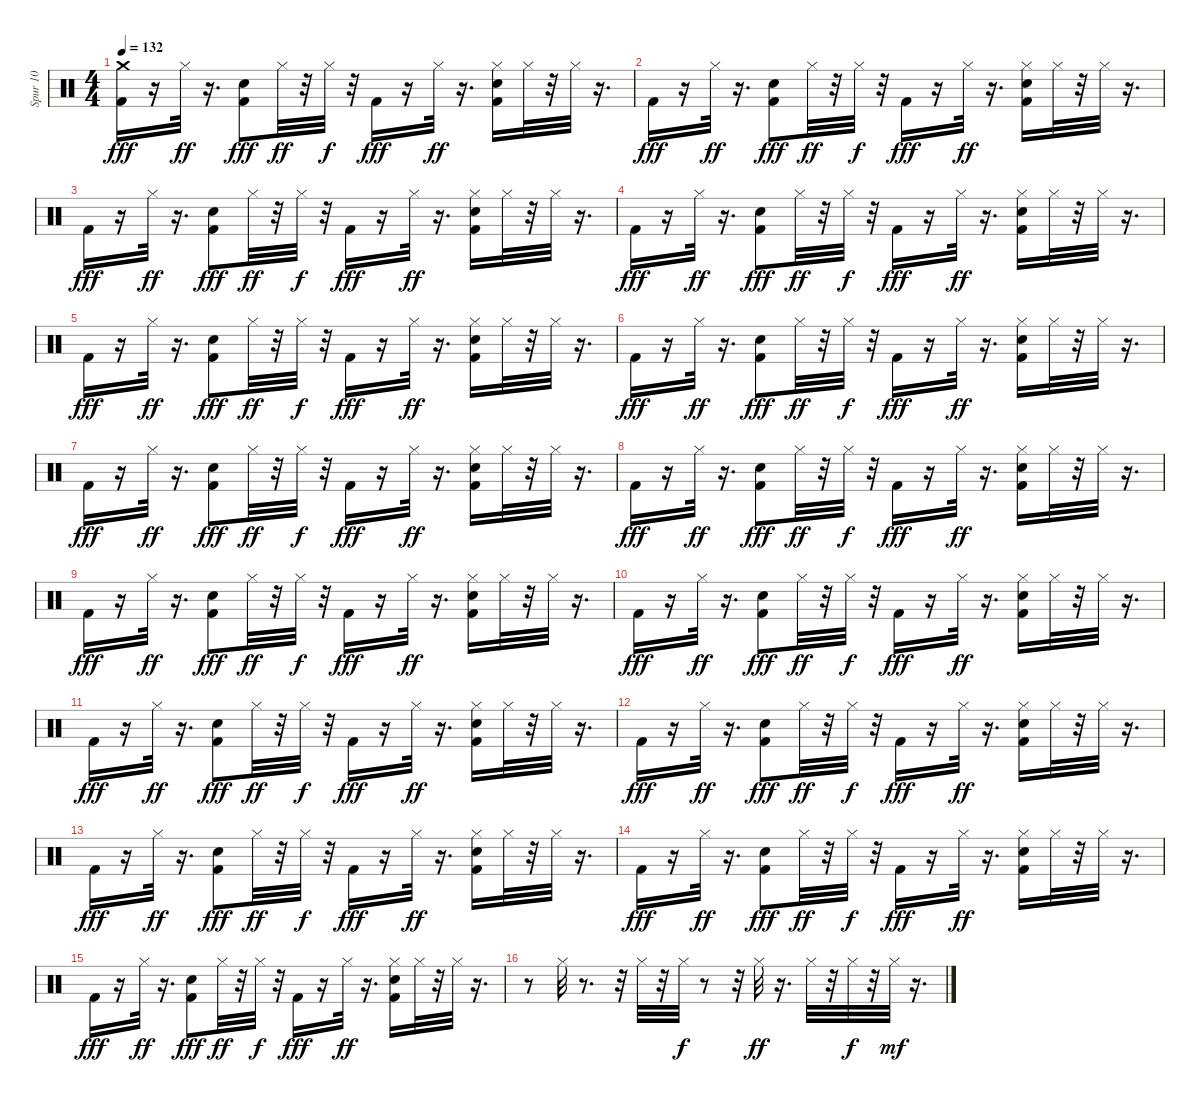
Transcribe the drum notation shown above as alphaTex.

\track ("Spur 10" "Spur 10") {instrument percussion}
\staff {score}
\articulation defaults
\ts (4 4)
\tempo 132
\clef neutral
\ks c
("Crash medium (hit)" "Kick (hit) 2").16{dy fff} r.16 "Hi-Hat (closed)".32{dy ff} r.16{d} ("Snare (hit) 2" "Kick (hit) 2").8{dy fff} "Hi-Hat (closed)".32{dy ff} r.32 "Hi-Hat (closed)".32{dy f} r.32 "Kick (hit) 2".16{dy fff} r.16 "Hi-Hat (closed)".32{dy ff} r.16{d} ("Snare (hit) 2" "Kick (hit) 2" "Hi-Hat (closed)").16 "Hi-Hat (closed)".32 r.32 "Hi-Hat (closed)".32 r.16{d} |
"Kick (hit) 2".16{dy fff} r.16 "Hi-Hat (closed)".32{dy ff} r.16{d} ("Snare (hit) 2" "Kick (hit) 2").8{dy fff} "Hi-Hat (closed)".32{dy ff} r.32 "Hi-Hat (closed)".32{dy f} r.32 "Kick (hit) 2".16{dy fff} r.16 "Hi-Hat (closed)".32{dy ff} r.16{d} ("Snare (hit) 2" "Kick (hit) 2" "Hi-Hat (closed)").16 "Hi-Hat (closed)".32 r.32 "Hi-Hat (closed)".32 r.16{d} |
"Kick (hit) 2".16{dy fff} r.16 "Hi-Hat (closed)".32{dy ff} r.16{d} ("Snare (hit) 2" "Kick (hit) 2").8{dy fff} "Hi-Hat (closed)".32{dy ff} r.32 "Hi-Hat (closed)".32{dy f} r.32 "Kick (hit) 2".16{dy fff} r.16 "Hi-Hat (closed)".32{dy ff} r.16{d} ("Snare (hit) 2" "Kick (hit) 2" "Hi-Hat (closed)").16 "Hi-Hat (closed)".32 r.32 "Hi-Hat (closed)".32 r.16{d} |
"Kick (hit) 2".16{dy fff} r.16 "Hi-Hat (closed)".32{dy ff} r.16{d} ("Snare (hit) 2" "Kick (hit) 2").8{dy fff} "Hi-Hat (closed)".32{dy ff} r.32 "Hi-Hat (closed)".32{dy f} r.32 "Kick (hit) 2".16{dy fff} r.16 "Hi-Hat (closed)".32{dy ff} r.16{d} ("Snare (hit) 2" "Kick (hit) 2" "Hi-Hat (closed)").16 "Hi-Hat (closed)".32 r.32 "Hi-Hat (closed)".32 r.16{d} |
"Kick (hit) 2".16{dy fff} r.16 "Hi-Hat (closed)".32{dy ff} r.16{d} ("Snare (hit) 2" "Kick (hit) 2").8{dy fff} "Hi-Hat (closed)".32{dy ff} r.32 "Hi-Hat (closed)".32{dy f} r.32 "Kick (hit) 2".16{dy fff} r.16 "Hi-Hat (closed)".32{dy ff} r.16{d} ("Snare (hit) 2" "Kick (hit) 2" "Hi-Hat (closed)").16 "Hi-Hat (closed)".32 r.32 "Hi-Hat (closed)".32 r.16{d} |
"Kick (hit) 2".16{dy fff} r.16 "Hi-Hat (closed)".32{dy ff} r.16{d} ("Snare (hit) 2" "Kick (hit) 2").8{dy fff} "Hi-Hat (closed)".32{dy ff} r.32 "Hi-Hat (closed)".32{dy f} r.32 "Kick (hit) 2".16{dy fff} r.16 "Hi-Hat (closed)".32{dy ff} r.16{d} ("Snare (hit) 2" "Kick (hit) 2" "Hi-Hat (closed)").16 "Hi-Hat (closed)".32 r.32 "Hi-Hat (closed)".32 r.16{d} |
"Kick (hit) 2".16{dy fff} r.16 "Hi-Hat (closed)".32{dy ff} r.16{d} ("Snare (hit) 2" "Kick (hit) 2").8{dy fff} "Hi-Hat (closed)".32{dy ff} r.32 "Hi-Hat (closed)".32{dy f} r.32 "Kick (hit) 2".16{dy fff} r.16 "Hi-Hat (closed)".32{dy ff} r.16{d} ("Snare (hit) 2" "Kick (hit) 2" "Hi-Hat (closed)").16 "Hi-Hat (closed)".32 r.32 "Hi-Hat (closed)".32 r.16{d} |
"Kick (hit) 2".16{dy fff} r.16 "Hi-Hat (closed)".32{dy ff} r.16{d} ("Snare (hit) 2" "Kick (hit) 2").8{dy fff} "Hi-Hat (closed)".32{dy ff} r.32 "Hi-Hat (closed)".32{dy f} r.32 "Kick (hit) 2".16{dy fff} r.16 "Hi-Hat (closed)".32{dy ff} r.16{d} ("Snare (hit) 2" "Kick (hit) 2" "Hi-Hat (closed)").16 "Hi-Hat (closed)".32 r.32 "Hi-Hat (closed)".32 r.16{d} |
"Kick (hit) 2".16{dy fff} r.16 "Hi-Hat (closed)".32{dy ff} r.16{d} ("Snare (hit) 2" "Kick (hit) 2").8{dy fff} "Hi-Hat (closed)".32{dy ff} r.32 "Hi-Hat (closed)".32{dy f} r.32 "Kick (hit) 2".16{dy fff} r.16 "Hi-Hat (closed)".32{dy ff} r.16{d} ("Snare (hit) 2" "Kick (hit) 2" "Hi-Hat (closed)").16 "Hi-Hat (closed)".32 r.32 "Hi-Hat (closed)".32 r.16{d} |
"Kick (hit) 2".16{dy fff} r.16 "Hi-Hat (closed)".32{dy ff} r.16{d} ("Snare (hit) 2" "Kick (hit) 2").8{dy fff} "Hi-Hat (closed)".32{dy ff} r.32 "Hi-Hat (closed)".32{dy f} r.32 "Kick (hit) 2".16{dy fff} r.16 "Hi-Hat (closed)".32{dy ff} r.16{d} ("Snare (hit) 2" "Kick (hit) 2" "Hi-Hat (closed)").16 "Hi-Hat (closed)".32 r.32 "Hi-Hat (closed)".32 r.16{d} |
"Kick (hit) 2".16{dy fff} r.16 "Hi-Hat (closed)".32{dy ff} r.16{d} ("Snare (hit) 2" "Kick (hit) 2").8{dy fff} "Hi-Hat (closed)".32{dy ff} r.32 "Hi-Hat (closed)".32{dy f} r.32 "Kick (hit) 2".16{dy fff} r.16 "Hi-Hat (closed)".32{dy ff} r.16{d} ("Snare (hit) 2" "Kick (hit) 2" "Hi-Hat (closed)").16 "Hi-Hat (closed)".32 r.32 "Hi-Hat (closed)".32 r.16{d} |
"Kick (hit) 2".16{dy fff} r.16 "Hi-Hat (closed)".32{dy ff} r.16{d} ("Snare (hit) 2" "Kick (hit) 2").8{dy fff} "Hi-Hat (closed)".32{dy ff} r.32 "Hi-Hat (closed)".32{dy f} r.32 "Kick (hit) 2".16{dy fff} r.16 "Hi-Hat (closed)".32{dy ff} r.16{d} ("Snare (hit) 2" "Kick (hit) 2" "Hi-Hat (closed)").16 "Hi-Hat (closed)".32 r.32 "Hi-Hat (closed)".32 r.16{d} |
"Kick (hit) 2".16{dy fff} r.16 "Hi-Hat (closed)".32{dy ff} r.16{d} ("Snare (hit) 2" "Kick (hit) 2").8{dy fff} "Hi-Hat (closed)".32{dy ff} r.32 "Hi-Hat (closed)".32{dy f} r.32 "Kick (hit) 2".16{dy fff} r.16 "Hi-Hat (closed)".32{dy ff} r.16{d} ("Snare (hit) 2" "Kick (hit) 2" "Hi-Hat (closed)").16 "Hi-Hat (closed)".32 r.32 "Hi-Hat (closed)".32 r.16{d} |
"Kick (hit) 2".16{dy fff} r.16 "Hi-Hat (closed)".32{dy ff} r.16{d} ("Snare (hit) 2" "Kick (hit) 2").8{dy fff} "Hi-Hat (closed)".32{dy ff} r.32 "Hi-Hat (closed)".32{dy f} r.32 "Kick (hit) 2".16{dy fff} r.16 "Hi-Hat (closed)".32{dy ff} r.16{d} ("Snare (hit) 2" "Kick (hit) 2" "Hi-Hat (closed)").16 "Hi-Hat (closed)".32 r.32 "Hi-Hat (closed)".32 r.16{d} |
"Kick (hit) 2".16{dy fff} r.16 "Hi-Hat (closed)".32{dy ff} r.16{d} ("Snare (hit) 2" "Kick (hit) 2").8{dy fff} "Hi-Hat (closed)".32{dy ff} r.32 "Hi-Hat (closed)".32{dy f} r.32 "Kick (hit) 2".16{dy fff} r.16 "Hi-Hat (closed)".32{dy ff} r.16{d} ("Snare (hit) 2" "Kick (hit) 2" "Hi-Hat (closed)").16 "Hi-Hat (closed)".32 r.32 "Hi-Hat (closed)".32 r.16{d} |
r.8 "Hi-Hat (closed)".32 r.8{d} r.32 "Hi-Hat (closed)".32 r.32 "Hi-Hat (closed)".32{dy f} r.8 r.32 "Hi-Hat (closed)".32{dy ff} r.16{d} "Hi-Hat (closed)".32 r.32 "Hi-Hat (closed)".32{dy f} r.32 "Hi-Hat (closed)".32{dy mf} r.16{d}
